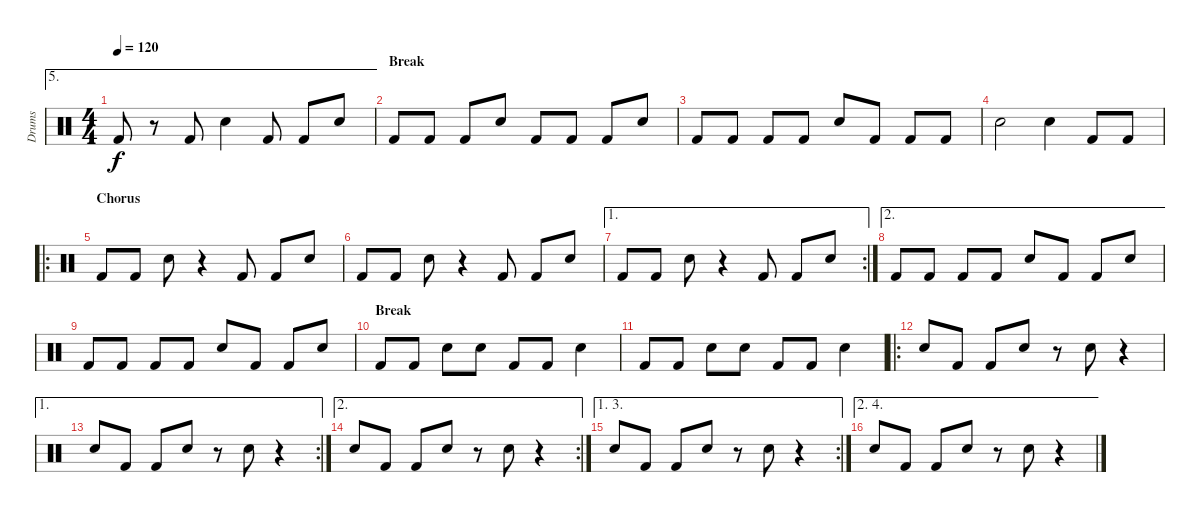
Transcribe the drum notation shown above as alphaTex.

\track ("Drums" "Drums") {instrument percussion}
\staff {score}
\articulation defaults
\ae 5
\ts (4 4)
\tempo 120
\clef neutral
\ks c "Kick (hit) 2".8{dy f}
r.8 "Kick (hit) 2".8 "Snare (hit) 2".4 "Kick (hit) 2".8 "Kick (hit) 2".8 "Snare (hit) 2".8 |
\section ("" "Break")
"Kick (hit) 2".8 "Kick (hit) 2".8 "Kick (hit) 2".8 "Snare (hit) 2".8 "Kick (hit) 2".8 "Kick (hit) 2".8 "Kick (hit) 2".8 "Snare (hit) 2".8 |
"Kick (hit) 2".8 "Kick (hit) 2".8 "Kick (hit) 2".8 "Kick (hit) 2".8 "Snare (hit) 2".8 "Kick (hit) 2".8 "Kick (hit) 2".8 "Kick (hit) 2".8 |
"Snare (hit) 2".2 "Snare (hit) 2".4 "Kick (hit) 2".8 "Kick (hit) 2".8 |
\ro
\section ("" "Chorus")
"Kick (hit) 2".8 "Kick (hit) 2".8 "Snare (hit) 2".8 r.4 "Kick (hit) 2".8 "Kick (hit) 2".8 "Snare (hit) 2".8 |
"Kick (hit) 2".8 "Kick (hit) 2".8 "Snare (hit) 2".8 r.4 "Kick (hit) 2".8 "Kick (hit) 2".8 "Snare (hit) 2".8 |
\ae 1
\rc 2 "Kick (hit) 2".8 "Kick (hit) 2".8 "Snare (hit) 2".8
r.4 "Kick (hit) 2".8 "Kick (hit) 2".8 "Snare (hit) 2".8 |
\ae 2 "Kick (hit) 2".8 "Kick (hit) 2".8 "Kick (hit) 2".8 "Kick (hit) 2".8 "Snare (hit) 2".8 "Kick (hit) 2".8 "Kick (hit) 2".8 "Snare (hit) 2".8
|
"Kick (hit) 2".8 "Kick (hit) 2".8 "Kick (hit) 2".8 "Kick (hit) 2".8 "Snare (hit) 2".8 "Kick (hit) 2".8 "Kick (hit) 2".8 "Snare (hit) 2".8 |
\section ("" "Break")
"Kick (hit) 2".8 "Kick (hit) 2".8 "Snare (hit) 2".8 "Snare (hit) 2".8 "Kick (hit) 2".8 "Kick (hit) 2".8 "Snare (hit) 2".4 |
"Kick (hit) 2".8 "Kick (hit) 2".8 "Snare (hit) 2".8 "Snare (hit) 2".8 "Kick (hit) 2".8 "Kick (hit) 2".8 "Snare (hit) 2".4 |
\ro "Snare (hit) 2".8 "Kick (hit) 2".8 "Kick (hit) 2".8 "Snare (hit) 2".8
r.8 "Snare (hit) 2".8 r.4 |
\ae 1
\rc 2 "Snare (hit) 2".8 "Kick (hit) 2".8 "Kick (hit) 2".8 "Snare (hit) 2".8
r.8 "Snare (hit) 2".8 r.4 |
\ae 2
\rc 2 "Snare (hit) 2".8 "Kick (hit) 2".8 "Kick (hit) 2".8 "Snare (hit) 2".8
r.8 "Snare (hit) 2".8 r.4 |
\ae (1 3)
\rc 2 "Snare (hit) 2".8 "Kick (hit) 2".8 "Kick (hit) 2".8 "Snare (hit) 2".8
r.8 "Snare (hit) 2".8 r.4 |
\ae (2 4)
"Snare (hit) 2".8 "Kick (hit) 2".8 "Kick (hit) 2".8 "Snare (hit) 2".8 r.8 "Snare (hit) 2".8 r.4
